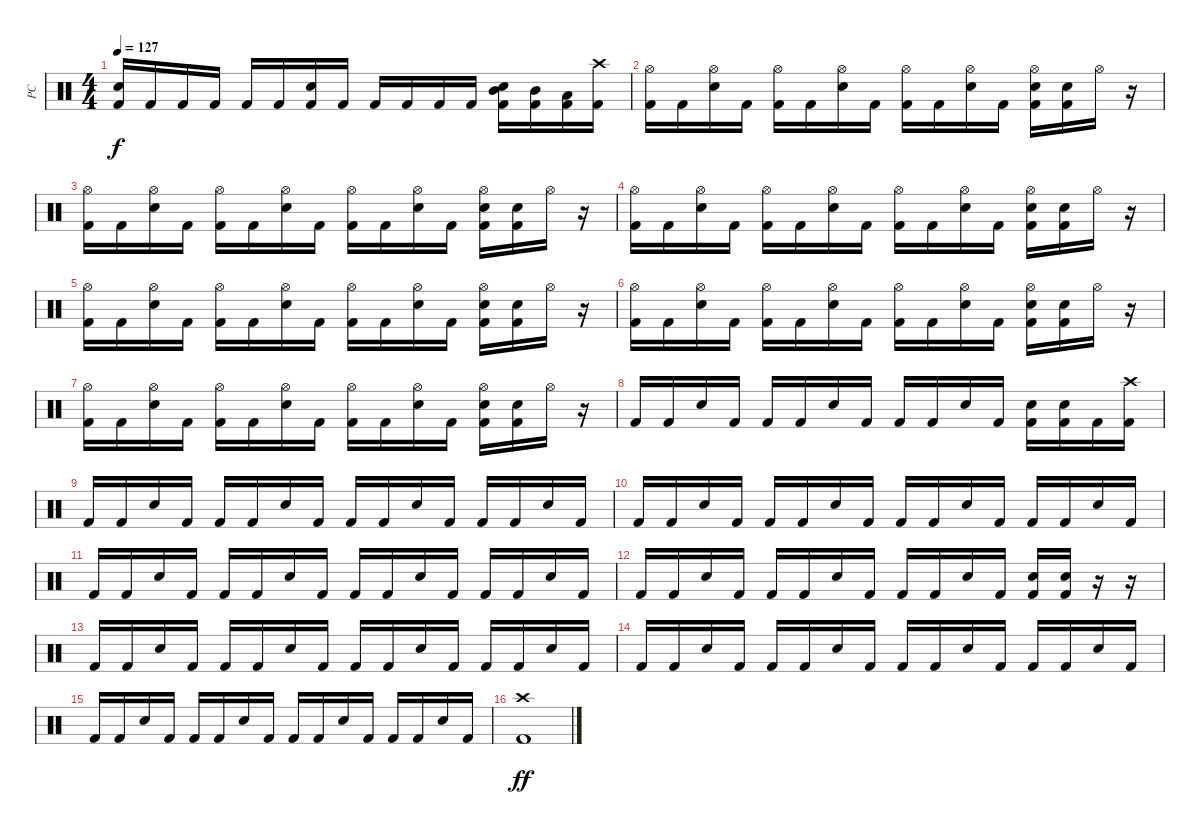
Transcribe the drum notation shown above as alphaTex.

\track ("PC" "PC") {instrument percussion}
\staff {score}
\articulation defaults
\ts (4 4)
\tempo 127
\clef neutral
\ks c
("Snare (hit) 2" "Kick (hit) 2").16{dy f} "Kick (hit) 2".16 "Kick (hit) 2".16 "Kick (hit) 2".16 "Kick (hit) 2".16 "Kick (hit) 2".16 ("Snare (hit) 2" "Kick (hit) 2").16 "Kick (hit) 2".16 "Kick (hit) 2".16 "Kick (hit) 2".16 "Kick (hit) 2".16 "Kick (hit) 2".16 ("Mid Tom (hit)" "Snare (hit) 2" "Kick (hit) 2").16 ("Mid Tom (hit)" "Kick (hit) 2").16 ("Low Tom (hit)" "Kick (hit) 2").16 ("Crash high (hit)" "Kick (hit) 2").16 |
("Hi-Hat (open)" "Kick (hit) 2").16 "Kick (hit) 2".16 ("Hi-Hat (open)" "Snare (hit) 2").16 "Kick (hit) 2".16 ("Hi-Hat (open)" "Kick (hit) 2").16 "Kick (hit) 2".16 ("Hi-Hat (open)" "Snare (hit) 2").16 "Kick (hit) 2".16 ("Hi-Hat (open)" "Kick (hit) 2").16 "Kick (hit) 2".16 ("Hi-Hat (open)" "Snare (hit) 2").16 "Kick (hit) 2".16 ("Hi-Hat (open)" "Snare (hit) 2" "Kick (hit) 2").16 ("Snare (hit) 2" "Kick (hit) 2").16 "Hi-Hat (open)".16 r.16 |
("Hi-Hat (open)" "Kick (hit) 2").16 "Kick (hit) 2".16 ("Hi-Hat (open)" "Snare (hit) 2").16 "Kick (hit) 2".16 ("Hi-Hat (open)" "Kick (hit) 2").16 "Kick (hit) 2".16 ("Hi-Hat (open)" "Snare (hit) 2").16 "Kick (hit) 2".16 ("Hi-Hat (open)" "Kick (hit) 2").16 "Kick (hit) 2".16 ("Hi-Hat (open)" "Snare (hit) 2").16 "Kick (hit) 2".16 ("Hi-Hat (open)" "Snare (hit) 2" "Kick (hit) 2").16 ("Snare (hit) 2" "Kick (hit) 2").16 "Hi-Hat (open)".16 r.16 |
("Hi-Hat (open)" "Kick (hit) 2").16 "Kick (hit) 2".16 ("Hi-Hat (open)" "Snare (hit) 2").16 "Kick (hit) 2".16 ("Hi-Hat (open)" "Kick (hit) 2").16 "Kick (hit) 2".16 ("Hi-Hat (open)" "Snare (hit) 2").16 "Kick (hit) 2".16 ("Hi-Hat (open)" "Kick (hit) 2").16 "Kick (hit) 2".16 ("Hi-Hat (open)" "Snare (hit) 2").16 "Kick (hit) 2".16 ("Hi-Hat (open)" "Snare (hit) 2" "Kick (hit) 2").16 ("Snare (hit) 2" "Kick (hit) 2").16 "Hi-Hat (open)".16 r.16 |
("Hi-Hat (open)" "Kick (hit) 2").16 "Kick (hit) 2".16 ("Hi-Hat (open)" "Snare (hit) 2").16 "Kick (hit) 2".16 ("Hi-Hat (open)" "Kick (hit) 2").16 "Kick (hit) 2".16 ("Hi-Hat (open)" "Snare (hit) 2").16 "Kick (hit) 2".16 ("Hi-Hat (open)" "Kick (hit) 2").16 "Kick (hit) 2".16 ("Hi-Hat (open)" "Snare (hit) 2").16 "Kick (hit) 2".16 ("Hi-Hat (open)" "Snare (hit) 2" "Kick (hit) 2").16 ("Snare (hit) 2" "Kick (hit) 2").16 "Hi-Hat (open)".16 r.16 |
("Hi-Hat (open)" "Kick (hit) 2").16 "Kick (hit) 2".16 ("Hi-Hat (open)" "Snare (hit) 2").16 "Kick (hit) 2".16 ("Hi-Hat (open)" "Kick (hit) 2").16 "Kick (hit) 2".16 ("Hi-Hat (open)" "Snare (hit) 2").16 "Kick (hit) 2".16 ("Hi-Hat (open)" "Kick (hit) 2").16 "Kick (hit) 2".16 ("Hi-Hat (open)" "Snare (hit) 2").16 "Kick (hit) 2".16 ("Hi-Hat (open)" "Snare (hit) 2" "Kick (hit) 2").16 ("Snare (hit) 2" "Kick (hit) 2").16 "Hi-Hat (open)".16 r.16 |
("Hi-Hat (open)" "Kick (hit) 2").16 "Kick (hit) 2".16 ("Hi-Hat (open)" "Snare (hit) 2").16 "Kick (hit) 2".16 ("Hi-Hat (open)" "Kick (hit) 2").16 "Kick (hit) 2".16 ("Hi-Hat (open)" "Snare (hit) 2").16 "Kick (hit) 2".16 ("Hi-Hat (open)" "Kick (hit) 2").16 "Kick (hit) 2".16 ("Hi-Hat (open)" "Snare (hit) 2").16 "Kick (hit) 2".16 ("Hi-Hat (open)" "Snare (hit) 2" "Kick (hit) 2").16 ("Snare (hit) 2" "Kick (hit) 2").16 "Hi-Hat (open)".16 r.16 |
"Kick (hit) 2".16 "Kick (hit) 2".16 "Snare (hit) 2".16 "Kick (hit) 2".16 "Kick (hit) 2".16 "Kick (hit) 2".16 "Snare (hit) 2".16 "Kick (hit) 2".16 "Kick (hit) 2".16 "Kick (hit) 2".16 "Snare (hit) 2".16 "Kick (hit) 2".16 ("Snare (hit) 2" "Kick (hit) 2").16 ("Snare (hit) 2" "Kick (hit) 2").16 "Kick (hit) 2".16 ("Crash high (hit)" "Kick (hit) 2").16 |
"Kick (hit) 2".16 "Kick (hit) 2".16 "Snare (hit) 2".16 "Kick (hit) 2".16 "Kick (hit) 2".16 "Kick (hit) 2".16 "Snare (hit) 2".16 "Kick (hit) 2".16 "Kick (hit) 2".16 "Kick (hit) 2".16 "Snare (hit) 2".16 "Kick (hit) 2".16 "Kick (hit) 2".16 "Kick (hit) 2".16 "Snare (hit) 2".16 "Kick (hit) 2".16 |
"Kick (hit) 2".16 "Kick (hit) 2".16 "Snare (hit) 2".16 "Kick (hit) 2".16 "Kick (hit) 2".16 "Kick (hit) 2".16 "Snare (hit) 2".16 "Kick (hit) 2".16 "Kick (hit) 2".16 "Kick (hit) 2".16 "Snare (hit) 2".16 "Kick (hit) 2".16 "Kick (hit) 2".16 "Kick (hit) 2".16 "Snare (hit) 2".16 "Kick (hit) 2".16 |
"Kick (hit) 2".16 "Kick (hit) 2".16 "Snare (hit) 2".16 "Kick (hit) 2".16 "Kick (hit) 2".16 "Kick (hit) 2".16 "Snare (hit) 2".16 "Kick (hit) 2".16 "Kick (hit) 2".16 "Kick (hit) 2".16 "Snare (hit) 2".16 "Kick (hit) 2".16 "Kick (hit) 2".16 "Kick (hit) 2".16 "Snare (hit) 2".16 "Kick (hit) 2".16 |
"Kick (hit) 2".16 "Kick (hit) 2".16 "Snare (hit) 2".16 "Kick (hit) 2".16 "Kick (hit) 2".16 "Kick (hit) 2".16 "Snare (hit) 2".16 "Kick (hit) 2".16 "Kick (hit) 2".16 "Kick (hit) 2".16 "Snare (hit) 2".16 "Kick (hit) 2".16 ("Snare (hit) 2" "Kick (hit) 2").16 ("Snare (hit) 2" "Kick (hit) 2").16 r.16 r.16 |
"Kick (hit) 2".16 "Kick (hit) 2".16 "Snare (hit) 2".16 "Kick (hit) 2".16 "Kick (hit) 2".16 "Kick (hit) 2".16 "Snare (hit) 2".16 "Kick (hit) 2".16 "Kick (hit) 2".16 "Kick (hit) 2".16 "Snare (hit) 2".16 "Kick (hit) 2".16 "Kick (hit) 2".16 "Kick (hit) 2".16 "Snare (hit) 2".16 "Kick (hit) 2".16 |
"Kick (hit) 2".16 "Kick (hit) 2".16 "Snare (hit) 2".16 "Kick (hit) 2".16 "Kick (hit) 2".16 "Kick (hit) 2".16 "Snare (hit) 2".16 "Kick (hit) 2".16 "Kick (hit) 2".16 "Kick (hit) 2".16 "Snare (hit) 2".16 "Kick (hit) 2".16 "Kick (hit) 2".16 "Kick (hit) 2".16 "Snare (hit) 2".16 "Kick (hit) 2".16 |
"Kick (hit) 2".16 "Kick (hit) 2".16 "Snare (hit) 2".16 "Kick (hit) 2".16 "Kick (hit) 2".16 "Kick (hit) 2".16 "Snare (hit) 2".16 "Kick (hit) 2".16 "Kick (hit) 2".16 "Kick (hit) 2".16 "Snare (hit) 2".16 "Kick (hit) 2".16 "Kick (hit) 2".16 "Kick (hit) 2".16 "Snare (hit) 2".16 "Kick (hit) 2".16 |
("Crash high (hit)" "Kick (hit) 2").1{bd 120 dy ff}
